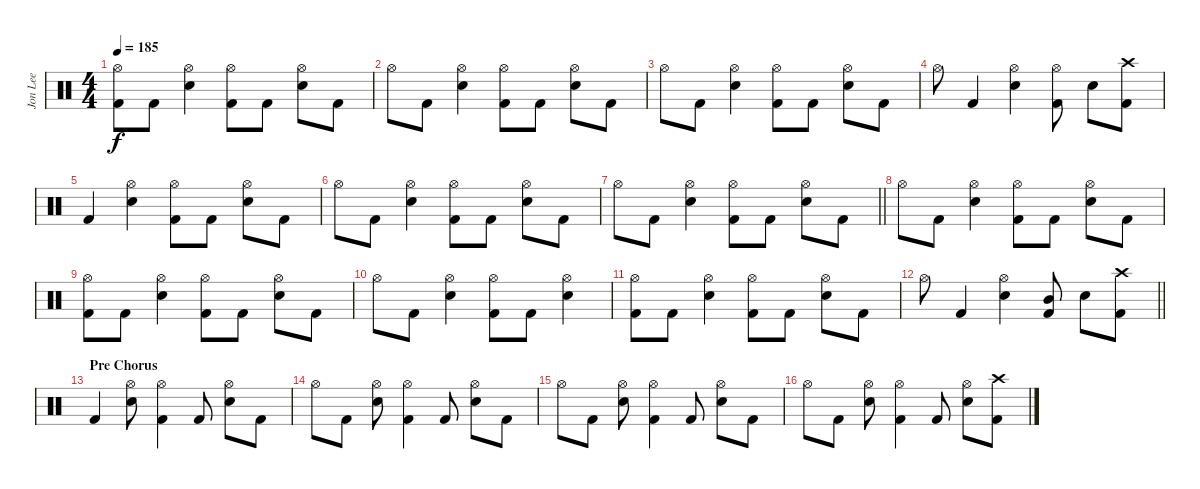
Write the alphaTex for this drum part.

\track ("Jon Lee" "Jon Lee") {instrument percussion bank 10}
\staff {score}
\articulation defaults
\ts (4 4)
\tempo 185
\clef neutral
\ks c
("Hi-Hat (open)" "Kick (hit) 2").8{dy f} "Kick (hit) 2".8 ("Snare (hit) 2" "Hi-Hat (open)").4 ("Hi-Hat (open)" "Kick (hit) 2").8 "Kick (hit) 2".8 ("Snare (hit) 2" "Hi-Hat (open)").8 "Kick (hit) 2".8 |
"Hi-Hat (open)".8 "Kick (hit) 2".8 ("Snare (hit) 2" "Hi-Hat (open)").4 ("Hi-Hat (open)" "Kick (hit) 2").8 "Kick (hit) 2".8 ("Snare (hit) 2" "Hi-Hat (open)").8 "Kick (hit) 2".8 |
"Hi-Hat (open)".8 "Kick (hit) 2".8 ("Snare (hit) 2" "Hi-Hat (open)").4 ("Hi-Hat (open)" "Kick (hit) 2").8 "Kick (hit) 2".8 ("Snare (hit) 2" "Hi-Hat (open)").8 "Kick (hit) 2".8 |
"Hi-Hat (open)".8 "Kick (hit) 2".4 ("Snare (hit) 2" "Hi-Hat (open)").4 ("Hi-Hat (open)" "Kick (hit) 2").8 "Snare (hit) 2".8 ("Kick (hit) 2" "Crash high (hit)").8 |
"Kick (hit) 2".4 ("Snare (hit) 2" "Hi-Hat (open)").4 ("Hi-Hat (open)" "Kick (hit) 2").8 "Kick (hit) 2".8 ("Snare (hit) 2" "Hi-Hat (open)").8 "Kick (hit) 2".8 |
"Hi-Hat (open)".8 "Kick (hit) 2".8 ("Snare (hit) 2" "Hi-Hat (open)").4 ("Hi-Hat (open)" "Kick (hit) 2").8 "Kick (hit) 2".8 ("Snare (hit) 2" "Hi-Hat (open)").8 "Kick (hit) 2".8 |
\barLineRight lightlight "Hi-Hat (open)".8 "Kick (hit) 2".8
("Snare (hit) 2" "Hi-Hat (open)").4 ("Hi-Hat (open)" "Kick (hit) 2").8 "Kick (hit) 2".8 ("Snare (hit) 2" "Hi-Hat (open)").8 "Kick (hit) 2".8 |
"Hi-Hat (open)".8 "Kick (hit) 2".8 ("Snare (hit) 2" "Hi-Hat (open)").4 ("Hi-Hat (open)" "Kick (hit) 2").8 "Kick (hit) 2".8 ("Snare (hit) 2" "Hi-Hat (open)").8 "Kick (hit) 2".8 |
("Hi-Hat (open)" "Kick (hit) 2").8 "Kick (hit) 2".8 ("Snare (hit) 2" "Hi-Hat (open)").4 ("Hi-Hat (open)" "Kick (hit) 2").8 "Kick (hit) 2".8 ("Snare (hit) 2" "Hi-Hat (open)").8 "Kick (hit) 2".8 |
"Hi-Hat (open)".8 "Kick (hit) 2".8 ("Snare (hit) 2" "Hi-Hat (open)").4 ("Hi-Hat (open)" "Kick (hit) 2").8 "Kick (hit) 2".8 ("Snare (hit) 2" "Hi-Hat (open)").4 |
("Hi-Hat (open)" "Kick (hit) 2").8 "Kick (hit) 2".8 ("Snare (hit) 2" "Hi-Hat (open)").4 ("Hi-Hat (open)" "Kick (hit) 2").8 "Kick (hit) 2".8 ("Snare (hit) 2" "Hi-Hat (open)").8 "Kick (hit) 2".8 |
\barLineRight lightlight "Hi-Hat (open)".8 "Kick (hit) 2".4
("Snare (hit) 2" "Hi-Hat (open)").4 ("Mid Tom (hit)" "Kick (hit) 2").8 "Snare (hit) 2".8 ("Kick (hit) 2" "Crash high (hit)").8 |
\section ("" "Pre Chorus")
"Kick (hit) 2".4 ("Snare (hit) 2" "Hi-Hat (open)").8 ("Kick (hit) 2" "Hi-Hat (open)").4 "Kick (hit) 2".8 ("Snare (hit) 2" "Hi-Hat (open)").8 "Kick (hit) 2".8 |
"Hi-Hat (open)".8 "Kick (hit) 2".8 ("Snare (hit) 2" "Hi-Hat (open)").8 ("Kick (hit) 2" "Hi-Hat (open)").4 "Kick (hit) 2".8 ("Snare (hit) 2" "Hi-Hat (open)").8 "Kick (hit) 2".8 |
"Hi-Hat (open)".8 "Kick (hit) 2".8 ("Snare (hit) 2" "Hi-Hat (open)").8 ("Kick (hit) 2" "Hi-Hat (open)").4 "Kick (hit) 2".8 ("Snare (hit) 2" "Hi-Hat (open)").8 "Kick (hit) 2".8 |
"Hi-Hat (open)".8 "Kick (hit) 2".8 ("Snare (hit) 2" "Hi-Hat (open)").8 ("Kick (hit) 2" "Hi-Hat (open)").4 "Kick (hit) 2".8 ("Snare (hit) 2" "Hi-Hat (open)").8 ("Kick (hit) 2" "Crash high (hit)").8
